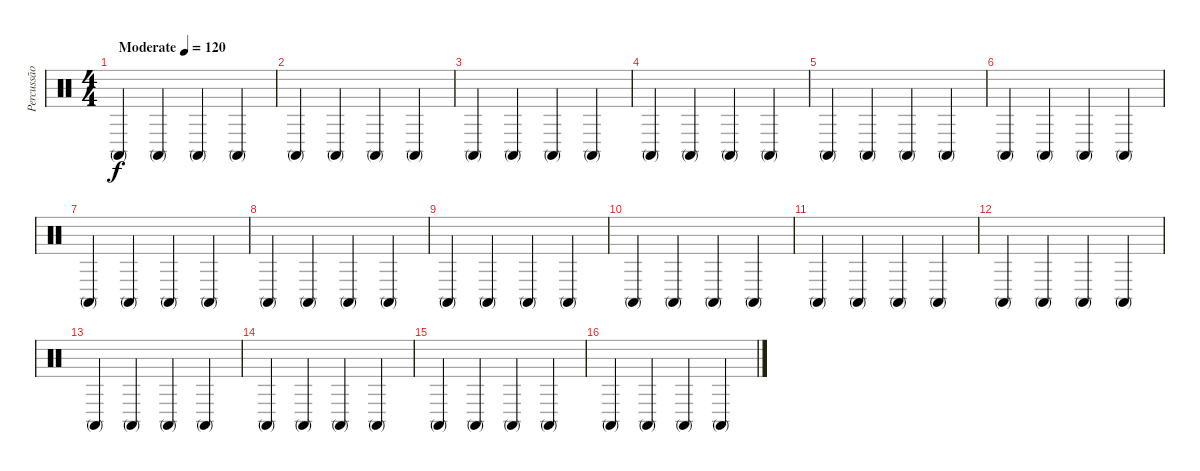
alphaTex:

\track ("Percussão" "Percussão") {instrument percussion}
\staff {score}
\articulation defaults
\ts (4 4)
\tempo (120 "Moderate")
\clef neutral
\ks c "Conga high (mute)".4{dy f} "Conga high (mute)".4 "Conga high (mute)".4 "Conga high (mute)".4
|
"Conga high (mute)".4 "Conga high (mute)".4 "Conga high (mute)".4 "Conga high (mute)".4 |
"Conga high (mute)".4 "Conga high (mute)".4 "Conga high (mute)".4 "Conga high (mute)".4 |
"Conga high (mute)".4 "Conga high (mute)".4 "Conga high (mute)".4 "Conga high (mute)".4 |
"Conga high (mute)".4 "Conga high (mute)".4 "Conga high (mute)".4 "Conga high (mute)".4 |
"Conga high (mute)".4 "Conga high (mute)".4 "Conga high (mute)".4 "Conga high (mute)".4 |
"Conga high (mute)".4 "Conga high (mute)".4 "Conga high (mute)".4 "Conga high (mute)".4 |
"Conga high (mute)".4 "Conga high (mute)".4 "Conga high (mute)".4 "Conga high (mute)".4 |
"Conga high (mute)".4 "Conga high (mute)".4 "Conga high (mute)".4 "Conga high (mute)".4 |
"Conga high (mute)".4 "Conga high (mute)".4 "Conga high (mute)".4 "Conga high (mute)".4 |
"Conga high (mute)".4 "Conga high (mute)".4 "Conga high (mute)".4 "Conga high (mute)".4 |
"Conga high (mute)".4 "Conga high (mute)".4 "Conga high (mute)".4 "Conga high (mute)".4 |
"Conga high (mute)".4 "Conga high (mute)".4 "Conga high (mute)".4 "Conga high (mute)".4 |
"Conga high (mute)".4 "Conga high (mute)".4 "Conga high (mute)".4 "Conga high (mute)".4 |
"Conga high (mute)".4 "Conga high (mute)".4 "Conga high (mute)".4 "Conga high (mute)".4 |
"Conga high (mute)".4 "Conga high (mute)".4 "Conga high (mute)".4 "Conga high (mute)".4
